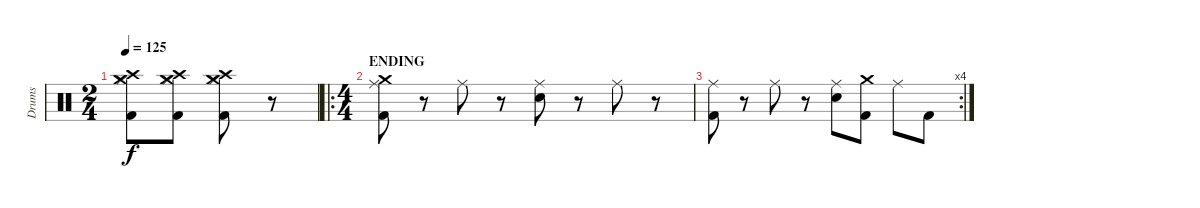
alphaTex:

\track ("Drums" "Drums") {instrument percussion}
\staff {score}
\articulation defaults
\ts (2 4)
\tempo 125
\clef neutral
\ks c
("Crash medium (hit)" "Crash high (hit)" "Hi-Hat (closed)" "Kick (hit) 2").8{dy f} ("Crash medium (hit)" "Crash high (hit)" "Hi-Hat (closed)" "Kick (hit) 2").8 ("Crash medium (hit)" "Crash high (hit)" "Hi-Hat (closed)" "Kick (hit) 2").8 r.8 |
\ro
\ts (4 4)
\section ("" "ENDING")
("Crash medium (hit)" "Ride (middle)" "Kick (hit) 2").8 r.8 "Ride (middle)".8 r.8 ("Ride (middle)" "Electric Snare (hit)").8 r.8 "Ride (middle)".8 r.8 |
\rc 4
("Ride (middle)" "Kick (hit) 2").8 r.8 "Ride (middle)".8 r.8 ("Ride (middle)" "Electric Snare (hit)").8 ("Crash medium (hit)" "Kick (hit) 2").8 "Ride (middle)".8 "Kick (hit) 2".8
